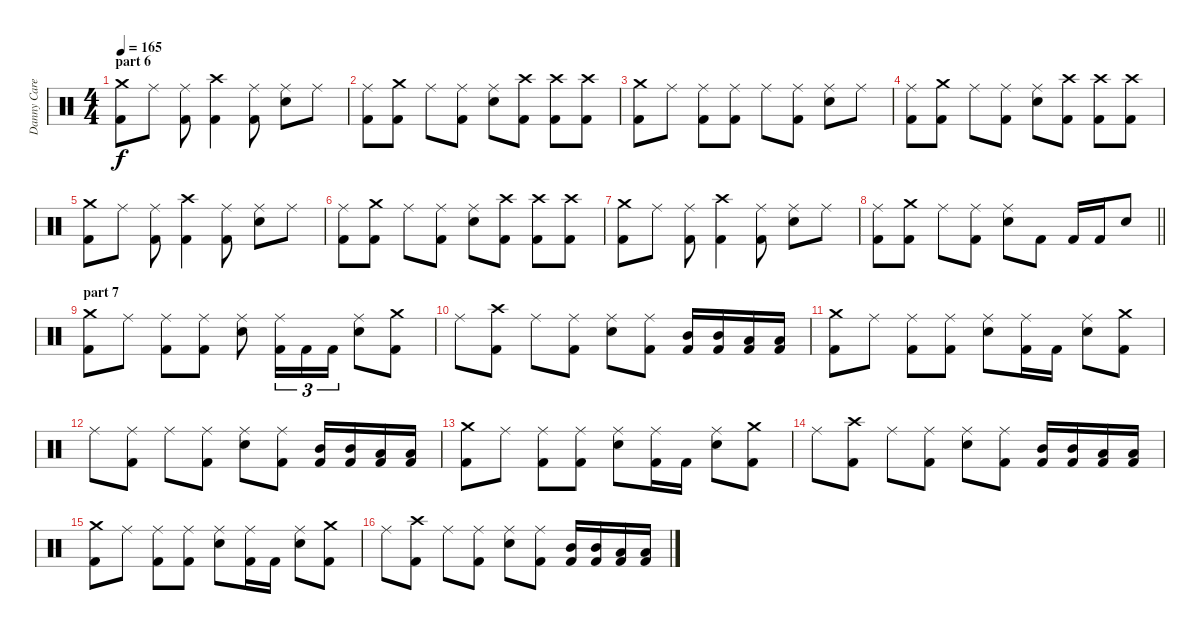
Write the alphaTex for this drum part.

\track ("Danny Carey / drums" "Danny Care") {instrument percussion}
\staff {score}
\articulation defaults
\ts (4 4)
\section ("" "part 6")
\tempo 165
\clef neutral
\ks c
("Crash medium (hit)" "Kick (hit) 2").8{dy f} "Ride (middle)".8 ("Ride (middle)" "Kick (hit) 2").8 ("Crash high (hit)" "Kick (hit) 2").4 ("Ride (middle)" "Kick (hit) 2").8 ("Ride (middle)" "Electric Snare (hit)").8 "Ride (middle)".8 |
("Ride (middle)" "Kick (hit) 2").8 ("Crash medium (hit)" "Kick (hit) 2").8 "Ride (middle)".8 ("Ride (middle)" "Kick (hit) 2").8 ("Ride (middle)" "Electric Snare (hit)").8 ("Crash high (hit)" "Kick (hit) 2").8 ("Crash high (hit)" "Kick (hit) 2").8 ("Crash high (hit)" "Kick (hit) 2").8 |
("Crash medium (hit)" "Kick (hit) 2").8 "Ride (middle)".8 ("Ride (middle)" "Kick (hit) 2").8 ("Ride (middle)" "Kick (hit) 2").8 "Ride (middle)".8 ("Ride (middle)" "Kick (hit) 2").8 ("Ride (middle)" "Electric Snare (hit)").8 "Ride (middle)".8 |
("Ride (middle)" "Kick (hit) 2").8 ("Crash medium (hit)" "Kick (hit) 2").8 "Ride (middle)".8 ("Ride (middle)" "Kick (hit) 2").8 ("Ride (middle)" "Electric Snare (hit)").8 ("Crash high (hit)" "Kick (hit) 2").8 ("Crash high (hit)" "Kick (hit) 2").8 ("Crash high (hit)" "Kick (hit) 2").8 |
("Crash medium (hit)" "Kick (hit) 2").8 "Ride (middle)".8 ("Ride (middle)" "Kick (hit) 2").8 ("Crash high (hit)" "Kick (hit) 2").4 ("Ride (middle)" "Kick (hit) 2").8 ("Ride (middle)" "Electric Snare (hit)").8 "Ride (middle)".8 |
("Ride (middle)" "Kick (hit) 2").8 ("Crash medium (hit)" "Kick (hit) 2").8 "Ride (middle)".8 ("Ride (middle)" "Kick (hit) 2").8 ("Ride (middle)" "Electric Snare (hit)").8 ("Crash high (hit)" "Kick (hit) 2").8 ("Crash high (hit)" "Kick (hit) 2").8 ("Crash high (hit)" "Kick (hit) 2").8 |
("Crash medium (hit)" "Kick (hit) 2").8 "Ride (middle)".8 ("Ride (middle)" "Kick (hit) 2").8 ("Crash high (hit)" "Kick (hit) 2").4 ("Ride (middle)" "Kick (hit) 2").8 ("Ride (middle)" "Electric Snare (hit)").8 "Ride (middle)".8 |
\barLineRight lightlight
("Ride (middle)" "Kick (hit) 2").8 ("Crash medium (hit)" "Kick (hit) 2").8 "Ride (middle)".8 ("Ride (middle)" "Kick (hit) 2").8 ("Ride (middle)" "Electric Snare (hit)").8 "Kick (hit) 2".8 "Kick (hit) 2".16 "Kick (hit) 2".16 "Electric Snare (hit)".8 |
\section ("" "part 7")
("Crash medium (hit)" "Kick (hit) 2").8 "Ride (middle)".8 ("Ride (middle)" "Kick (hit) 2").8 ("Ride (middle)" "Kick (hit) 2").8 ("Ride (middle)" "Electric Snare (hit)").8 ("Ride (middle)" "Kick (hit) 2").16{tu (3 2)} "Kick (hit) 2".16{tu (3 2)} "Kick (hit) 2".16{tu (3 2)} ("Ride (middle)" "Electric Snare (hit)").8 ("Crash medium (hit)" "Kick (hit) 2").8 |
"Ride (middle)".8 ("Crash high (hit)" "Kick (hit) 2").8 "Ride (middle)".8 ("Ride (middle)" "Kick (hit) 2").8 ("Ride (middle)" "Electric Snare (hit)").8 ("Ride (middle)" "Kick (hit) 2").8 ("Mid Tom (hit)" "Kick (hit) 2").16 ("Mid Tom (hit)" "Kick (hit) 2").16 ("Low Tom (hit)" "Kick (hit) 2").16 ("Low Floor Tom (hit)" "Kick (hit) 2").16 |
("Crash medium (hit)" "Kick (hit) 2").8 "Ride (middle)".8 ("Ride (middle)" "Kick (hit) 2").8 ("Ride (middle)" "Kick (hit) 2").8 ("Ride (middle)" "Electric Snare (hit)").8 ("Ride (middle)" "Kick (hit) 2").16 "Kick (hit) 2".16 ("Ride (middle)" "Electric Snare (hit)").8 ("Crash medium (hit)" "Kick (hit) 2").8 |
"Ride (middle)".8 ("Ride (middle)" "Kick (hit) 2").8 "Ride (middle)".8 ("Ride (middle)" "Kick (hit) 2").8 ("Ride (middle)" "Electric Snare (hit)").8 ("Ride (middle)" "Kick (hit) 2").8 ("Mid Tom (hit)" "Kick (hit) 2").16 ("Mid Tom (hit)" "Kick (hit) 2").16 ("Low Tom (hit)" "Kick (hit) 2").16 ("Low Floor Tom (hit)" "Kick (hit) 2").16 |
("Crash medium (hit)" "Kick (hit) 2").8 "Ride (middle)".8 ("Ride (middle)" "Kick (hit) 2").8 ("Ride (middle)" "Kick (hit) 2").8 ("Ride (middle)" "Electric Snare (hit)").8 ("Ride (middle)" "Kick (hit) 2").16 "Kick (hit) 2".16 ("Ride (middle)" "Electric Snare (hit)").8 ("Crash medium (hit)" "Kick (hit) 2").8 |
"Ride (middle)".8 ("Crash high (hit)" "Kick (hit) 2").8 "Ride (middle)".8 ("Ride (middle)" "Kick (hit) 2").8 ("Ride (middle)" "Electric Snare (hit)").8 ("Ride (middle)" "Kick (hit) 2").8 ("Mid Tom (hit)" "Kick (hit) 2").16 ("Mid Tom (hit)" "Kick (hit) 2").16 ("Low Tom (hit)" "Kick (hit) 2").16 ("Low Floor Tom (hit)" "Kick (hit) 2").16 |
("Crash medium (hit)" "Kick (hit) 2").8 "Ride (middle)".8 ("Ride (middle)" "Kick (hit) 2").8 ("Ride (middle)" "Kick (hit) 2").8 ("Ride (middle)" "Electric Snare (hit)").8 ("Ride (middle)" "Kick (hit) 2").16 "Kick (hit) 2".16 ("Ride (middle)" "Electric Snare (hit)").8 ("Crash medium (hit)" "Kick (hit) 2").8 |
"Ride (middle)".8 ("Crash high (hit)" "Kick (hit) 2").8 "Ride (middle)".8 ("Ride (middle)" "Kick (hit) 2").8 ("Ride (middle)" "Electric Snare (hit)").8 ("Ride (middle)" "Kick (hit) 2").8 ("Mid Tom (hit)" "Kick (hit) 2").16 ("Mid Tom (hit)" "Kick (hit) 2").16 ("Low Tom (hit)" "Kick (hit) 2").16 ("Low Floor Tom (hit)" "Kick (hit) 2").16
